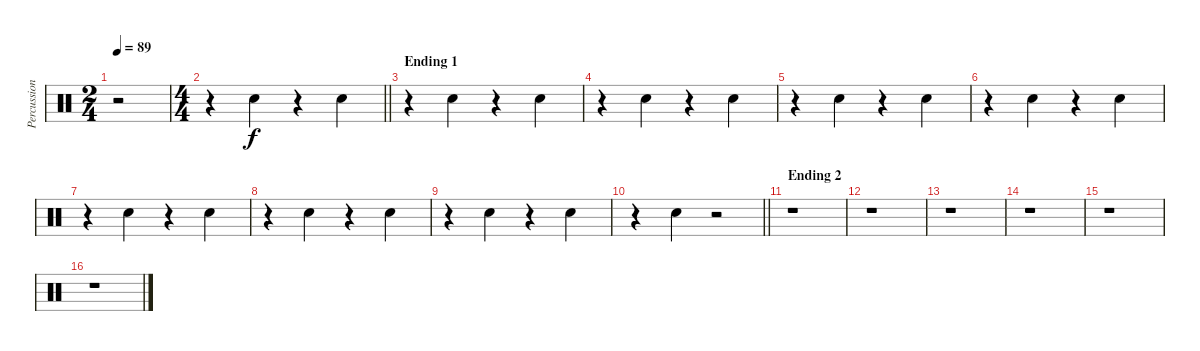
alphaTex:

\track ("Percussion" "Percussion") {instrument percussion}
\staff {score}
\articulation defaults
\ts (2 4)
\tempo 89
\clef neutral
\ks c
r.2{dy f} |
\ts (4 4)
\barLineRight lightlight
r.4 "Hand Clap (hit)".4 r.4 "Hand Clap (hit)".4 |
\section ("" "Ending 1")
r.4 "Hand Clap (hit)".4 r.4 "Hand Clap (hit)".4 |
r.4 "Hand Clap (hit)".4 r.4 "Hand Clap (hit)".4 |
r.4 "Hand Clap (hit)".4 r.4 "Hand Clap (hit)".4 |
r.4 "Hand Clap (hit)".4 r.4 "Hand Clap (hit)".4 |
r.4 "Hand Clap (hit)".4 r.4 "Hand Clap (hit)".4 |
r.4 "Hand Clap (hit)".4 r.4 "Hand Clap (hit)".4 |
r.4 "Hand Clap (hit)".4 r.4 "Hand Clap (hit)".4 |
\barLineRight lightlight
r.4 "Hand Clap (hit)".4 r.2 |
\section ("" "Ending 2")
r.1 |
r.1 |
r.1 |
r.1 |
r.1 |
r.1
